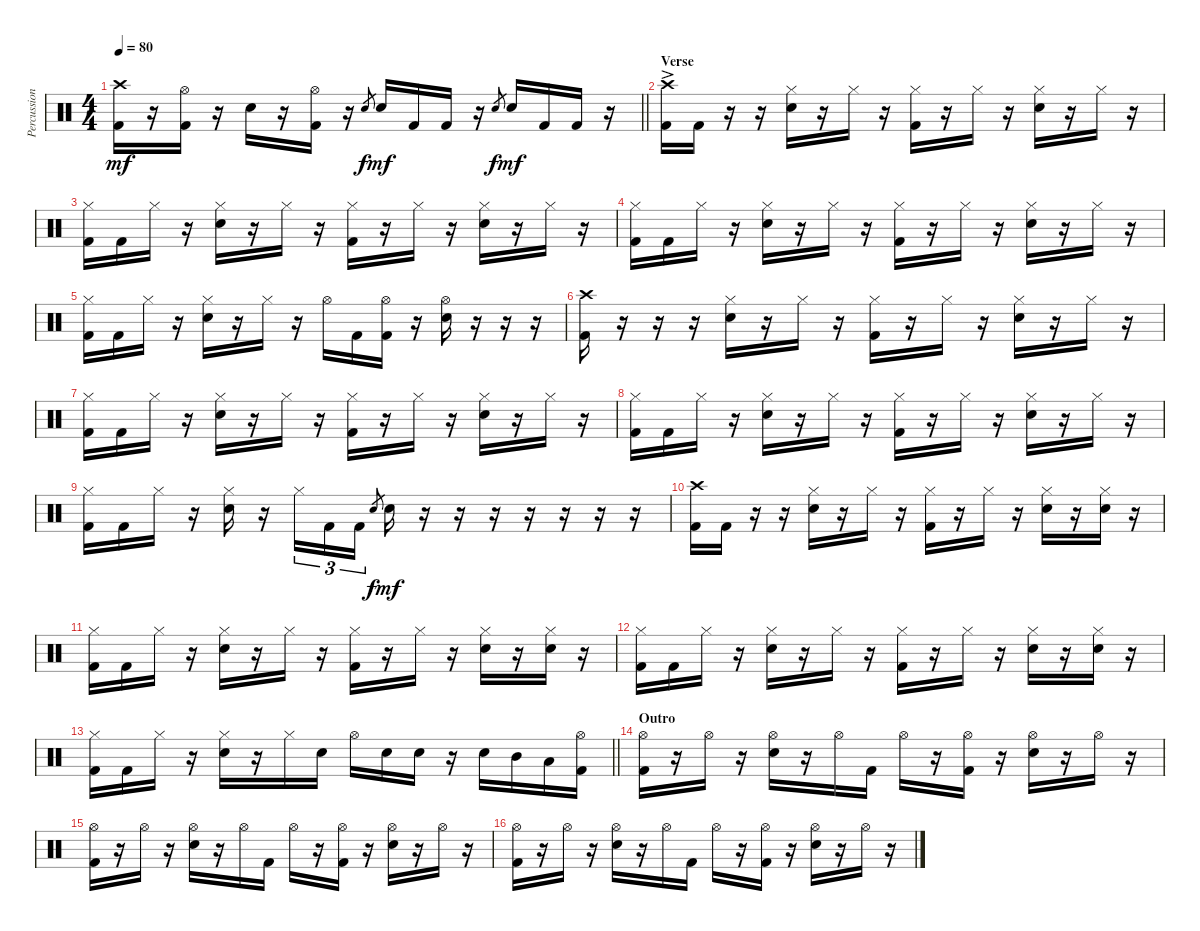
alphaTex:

\track ("Percussion" "Percussion") {instrument percussion}
\staff {score}
\articulation defaults
\ts (4 4)
\tempo 80
\clef neutral
\barLineRight lightlight
\ks c
("Crash high (hit)" "Kick (hit) 2").16{dy mf} r.16 ("Hi-Hat (open)" "Kick (hit) 2").16 r.16 "Snare (hit) 2".16 r.16 ("Hi-Hat (open)" "Kick (hit) 2").16 r.16 "Snare (hit) 2".8{gr dy f} "Snare (hit) 2".16{dy mf} "Kick (hit) 2".16 "Kick (hit) 2".16 r.16 "Snare (hit) 2".8{gr dy f} "Snare (hit) 2".16{dy mf} "Kick (hit) 2".16 "Kick (hit) 2".16 r.16 |
\section ("" "Verse")
("Crash high (hit)"{ac} "Kick (hit) 2").16 "Kick (hit) 2".16 r.16 r.16 ("Hi-Hat (closed)" "Snare (hit) 2").16 r.16 "Hi-Hat (closed)".16 r.16 ("Hi-Hat (closed)" "Kick (hit) 2").16 r.16 "Hi-Hat (closed)".16 r.16 ("Hi-Hat (closed)" "Snare (hit) 2").16 r.16 "Hi-Hat (closed)".16 r.16 |
("Hi-Hat (closed)" "Kick (hit) 2").16 "Kick (hit) 2".16 "Hi-Hat (closed)".16 r.16 ("Hi-Hat (closed)" "Snare (hit) 2").16 r.16 "Hi-Hat (closed)".16 r.16 ("Hi-Hat (closed)" "Kick (hit) 2").16 r.16 "Hi-Hat (closed)".16 r.16 ("Hi-Hat (closed)" "Snare (hit) 2").16 r.16 "Hi-Hat (closed)".16 r.16 |
("Hi-Hat (closed)" "Kick (hit) 2").16 "Kick (hit) 2".16 "Hi-Hat (closed)".16 r.16 ("Hi-Hat (closed)" "Snare (hit) 2").16 r.16 "Hi-Hat (closed)".16 r.16 ("Hi-Hat (closed)" "Kick (hit) 2").16 r.16 "Hi-Hat (closed)".16 r.16 ("Hi-Hat (closed)" "Snare (hit) 2").16 r.16 "Hi-Hat (closed)".16 r.16 |
("Hi-Hat (closed)" "Kick (hit) 2").16 "Kick (hit) 2".16 "Hi-Hat (closed)".16 r.16 ("Hi-Hat (closed)" "Snare (hit) 2").16 r.16 "Hi-Hat (closed)".16 r.16 "Hi-Hat (open)".16 "Kick (hit) 2".16 ("Hi-Hat (open)" "Kick (hit) 2").16 r.16 ("Hi-Hat (open)" "Snare (hit) 2").16 r.16 r.16 r.16 |
("Crash high (hit)" "Kick (hit) 2").16 r.16 r.16 r.16 ("Hi-Hat (closed)" "Snare (hit) 2").16 r.16 "Hi-Hat (closed)".16 r.16 ("Hi-Hat (closed)" "Kick (hit) 2").16 r.16 "Hi-Hat (closed)".16 r.16 ("Hi-Hat (closed)" "Snare (hit) 2").16 r.16 "Hi-Hat (closed)".16 r.16 |
("Hi-Hat (closed)" "Kick (hit) 2").16 "Kick (hit) 2".16 "Hi-Hat (closed)".16 r.16 ("Hi-Hat (closed)" "Snare (hit) 2").16 r.16 "Hi-Hat (closed)".16 r.16 ("Hi-Hat (closed)" "Kick (hit) 2").16 r.16 "Hi-Hat (closed)".16 r.16 ("Hi-Hat (closed)" "Snare (hit) 2").16 r.16 "Hi-Hat (closed)".16 r.16 |
("Hi-Hat (closed)" "Kick (hit) 2").16 "Kick (hit) 2".16 "Hi-Hat (closed)".16 r.16 ("Hi-Hat (closed)" "Snare (hit) 2").16 r.16 "Hi-Hat (closed)".16 r.16 ("Hi-Hat (closed)" "Kick (hit) 2").16 r.16 "Hi-Hat (closed)".16 r.16 ("Hi-Hat (closed)" "Snare (hit) 2").16 r.16 "Hi-Hat (closed)".16 r.16 |
("Hi-Hat (closed)" "Kick (hit) 2").16 "Kick (hit) 2".16 "Hi-Hat (closed)".16 r.16 ("Hi-Hat (closed)" "Snare (hit) 2").16 r.16 "Hi-Hat (closed)".16{tu (3 2)} "Kick (hit) 2".16{tu (3 2)} "Kick (hit) 2".16{tu (3 2)} "Snare (hit) 2".8{gr dy f} "Snare (hit) 2".16{dy mf} r.16 r.16 r.16 r.16 r.16 r.16 r.16 |
("Crash high (hit)" "Kick (hit) 2").16 "Kick (hit) 2".16 r.16 r.16 ("Hi-Hat (closed)" "Snare (hit) 2").16 r.16 "Hi-Hat (closed)".16 r.16 ("Hi-Hat (closed)" "Kick (hit) 2").16 r.16 "Hi-Hat (closed)".16 r.16 ("Hi-Hat (closed)" "Snare (hit) 2").16 r.16 ("Hi-Hat (closed)" "Snare (hit) 2").16 r.16 |
("Hi-Hat (closed)" "Kick (hit) 2").16 "Kick (hit) 2".16 "Hi-Hat (closed)".16 r.16 ("Hi-Hat (closed)" "Snare (hit) 2").16 r.16 "Hi-Hat (closed)".16 r.16 ("Hi-Hat (closed)" "Kick (hit) 2").16 r.16 "Hi-Hat (closed)".16 r.16 ("Hi-Hat (closed)" "Snare (hit) 2").16 r.16 ("Hi-Hat (closed)" "Snare (hit) 2").16 r.16 |
("Hi-Hat (closed)" "Kick (hit) 2").16 "Kick (hit) 2".16 "Hi-Hat (closed)".16 r.16 ("Hi-Hat (closed)" "Snare (hit) 2").16 r.16 "Hi-Hat (closed)".16 r.16 ("Hi-Hat (closed)" "Kick (hit) 2").16 r.16 "Hi-Hat (closed)".16 r.16 ("Hi-Hat (closed)" "Snare (hit) 2").16 r.16 ("Hi-Hat (closed)" "Snare (hit) 2").16 r.16 |
\barLineRight lightlight
("Hi-Hat (closed)" "Kick (hit) 2").16 "Kick (hit) 2".16 "Hi-Hat (closed)".16 r.16 ("Hi-Hat (closed)" "Snare (hit) 2").16 r.16 "Hi-Hat (closed)".16 "Snare (hit) 2".16 "Hi-Hat (open)".16 "Snare (hit) 2".16 "Snare (hit) 2".16 r.16 "Snare (hit) 2".16 "Mid Tom (hit)".16 "Low Tom (hit)".16 ("Hi-Hat (open)" "Kick (hit) 2").16 |
\section ("" "Outro")
("Hi-Hat (open)" "Kick (hit) 2").16 r.16 "Hi-Hat (open)".16 r.16 ("Hi-Hat (open)" "Snare (hit) 2").16 r.16 "Hi-Hat (open)".16 "Kick (hit) 2".16 "Hi-Hat (open)".16 r.16 ("Hi-Hat (open)" "Kick (hit) 2").16 r.16 ("Hi-Hat (open)" "Snare (hit) 2").16 r.16 "Hi-Hat (open)".16 r.16 |
("Hi-Hat (open)" "Kick (hit) 2").16 r.16 "Hi-Hat (open)".16 r.16 ("Hi-Hat (open)" "Snare (hit) 2").16 r.16 "Hi-Hat (open)".16 "Kick (hit) 2".16 "Hi-Hat (open)".16 r.16 ("Hi-Hat (open)" "Kick (hit) 2").16 r.16 ("Hi-Hat (open)" "Snare (hit) 2").16 r.16 "Hi-Hat (open)".16 r.16 |
("Hi-Hat (open)" "Kick (hit) 2").16 r.16 "Hi-Hat (open)".16 r.16 ("Hi-Hat (open)" "Snare (hit) 2").16 r.16 "Hi-Hat (open)".16 "Kick (hit) 2".16 "Hi-Hat (open)".16 r.16 ("Hi-Hat (open)" "Kick (hit) 2").16 r.16 ("Hi-Hat (open)" "Snare (hit) 2").16 r.16 "Hi-Hat (open)".16 r.16
